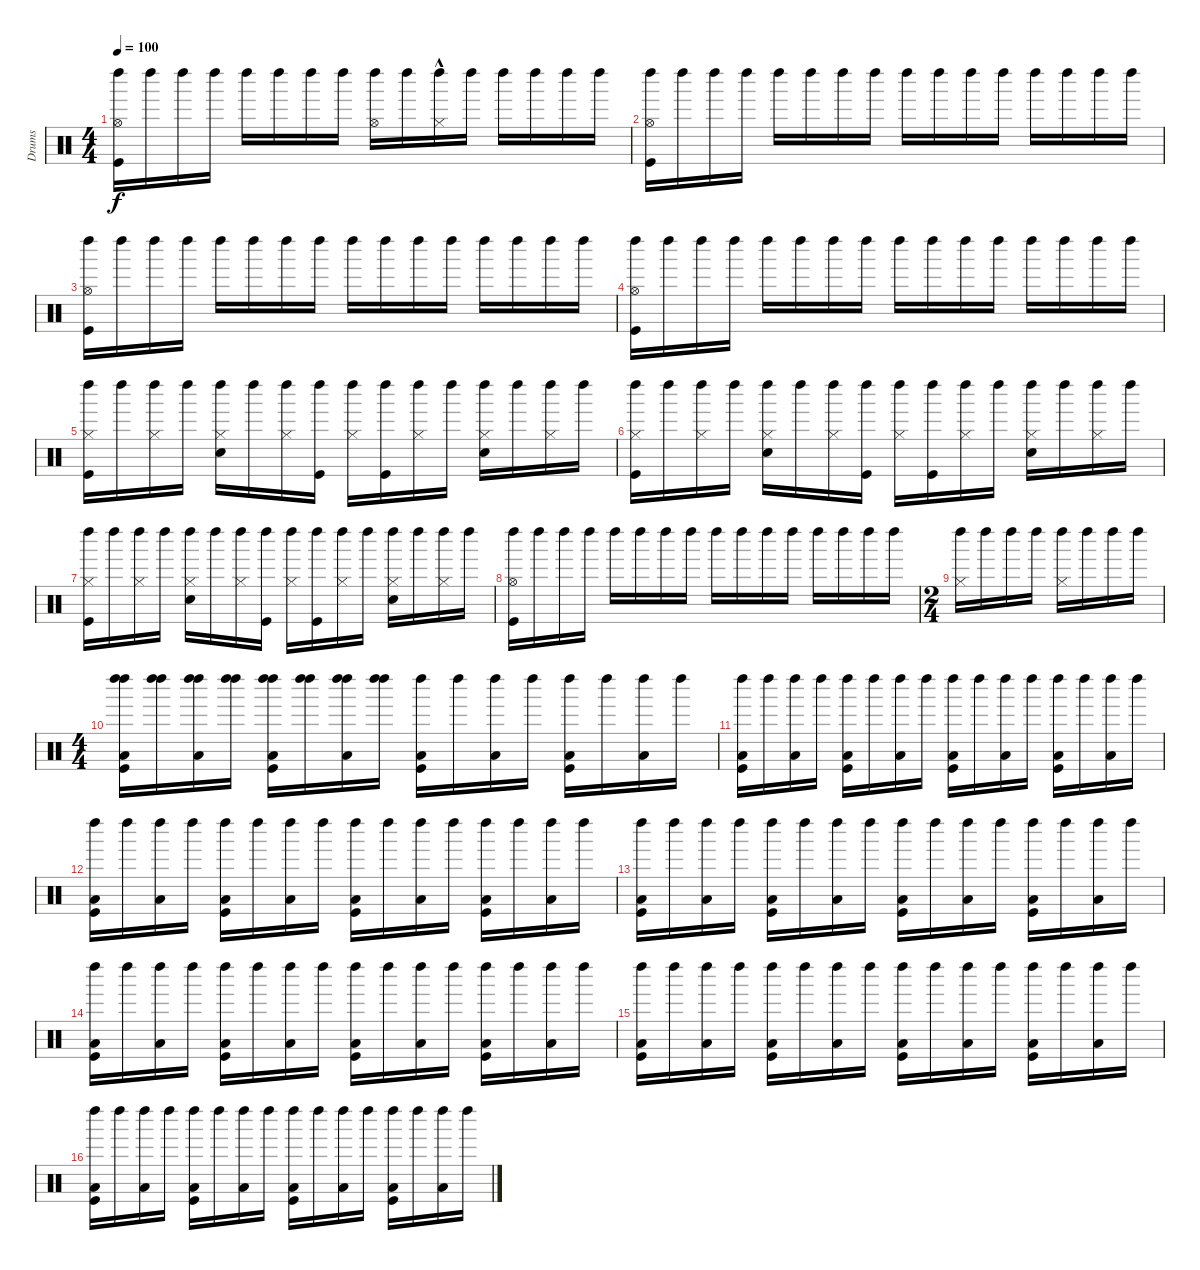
\track ("Drums" "Drums") {instrument percussion}
\staff {score}
\articulation defaults
\ts (4 4)
\tempo 100
\clef neutral
\ks c
("Kick (hit)" "Left Maraca (hit)" "Hi-Hat (open)").16{dy f} "Left Maraca (hit)".16 "Left Maraca (hit)".16 "Left Maraca (hit)".16 "Left Maraca (hit)".16 "Left Maraca (hit)".16 "Left Maraca (hit)".16 "Left Maraca (hit)".16 ("Left Maraca (hit)" "Hi-Hat (open)").16 "Left Maraca (hit)".16 ("Left Maraca (hit)" "Hi-Hat (closed)"{hac}).16 "Left Maraca (hit)".16 "Left Maraca (hit)".16 "Left Maraca (hit)".16 "Left Maraca (hit)".16 "Left Maraca (hit)".16 |
("Kick (hit)" "Hi-Hat (open)" "Left Maraca (hit)").16 "Left Maraca (hit)".16 "Left Maraca (hit)".16 "Left Maraca (hit)".16 "Left Maraca (hit)".16 "Left Maraca (hit)".16 "Left Maraca (hit)".16 "Left Maraca (hit)".16 "Left Maraca (hit)".16 "Left Maraca (hit)".16 "Left Maraca (hit)".16 "Left Maraca (hit)".16 "Left Maraca (hit)".16 "Left Maraca (hit)".16 "Left Maraca (hit)".16 "Left Maraca (hit)".16 |
("Kick (hit)" "Hi-Hat (open)" "Left Maraca (hit)").16 "Left Maraca (hit)".16 "Left Maraca (hit)".16 "Left Maraca (hit)".16 "Left Maraca (hit)".16 "Left Maraca (hit)".16 "Left Maraca (hit)".16 "Left Maraca (hit)".16 "Left Maraca (hit)".16 "Left Maraca (hit)".16 "Left Maraca (hit)".16 "Left Maraca (hit)".16 "Left Maraca (hit)".16 "Left Maraca (hit)".16 "Left Maraca (hit)".16 "Left Maraca (hit)".16 |
("Kick (hit)" "Hi-Hat (open)" "Left Maraca (hit)").16 "Left Maraca (hit)".16 "Left Maraca (hit)".16 "Left Maraca (hit)".16 "Left Maraca (hit)".16 "Left Maraca (hit)".16 "Left Maraca (hit)".16 "Left Maraca (hit)".16 "Left Maraca (hit)".16 "Left Maraca (hit)".16 "Left Maraca (hit)".16 "Left Maraca (hit)".16 "Left Maraca (hit)".16 "Left Maraca (hit)".16 "Left Maraca (hit)".16 "Left Maraca (hit)".16 |
("Hi-Hat (closed)" "Kick (hit)" "Left Maraca (hit)").16 "Left Maraca (hit)".16 ("Hi-Hat (closed)" "Left Maraca (hit)").16 "Left Maraca (hit)".16 ("Hi-Hat (closed)" "Electric Snare (hit)" "Left Maraca (hit)").16 "Left Maraca (hit)".16 ("Hi-Hat (closed)" "Left Maraca (hit)").16 ("Kick (hit)" "Left Maraca (hit)").16 ("Hi-Hat (closed)" "Left Maraca (hit)").16 ("Kick (hit)" "Left Maraca (hit)").16 ("Hi-Hat (closed)" "Left Maraca (hit)").16 "Left Maraca (hit)".16 ("Hi-Hat (closed)" "Electric Snare (hit)" "Left Maraca (hit)").16 "Left Maraca (hit)".16 ("Hi-Hat (closed)" "Left Maraca (hit)").16 "Left Maraca (hit)".16 |
("Hi-Hat (closed)" "Kick (hit)" "Left Maraca (hit)").16 "Left Maraca (hit)".16 ("Hi-Hat (closed)" "Left Maraca (hit)").16 "Left Maraca (hit)".16 ("Hi-Hat (closed)" "Electric Snare (hit)" "Left Maraca (hit)").16 "Left Maraca (hit)".16 ("Hi-Hat (closed)" "Left Maraca (hit)").16 ("Kick (hit)" "Left Maraca (hit)").16 ("Hi-Hat (closed)" "Left Maraca (hit)").16 ("Kick (hit)" "Left Maraca (hit)").16 ("Hi-Hat (closed)" "Left Maraca (hit)").16 "Left Maraca (hit)".16 ("Hi-Hat (closed)" "Electric Snare (hit)" "Left Maraca (hit)").16 "Left Maraca (hit)".16 ("Hi-Hat (closed)" "Left Maraca (hit)").16 "Left Maraca (hit)".16 |
("Hi-Hat (closed)" "Kick (hit)" "Left Maraca (hit)").16 "Left Maraca (hit)".16 ("Hi-Hat (closed)" "Left Maraca (hit)").16 "Left Maraca (hit)".16 ("Hi-Hat (closed)" "Electric Snare (hit)" "Left Maraca (hit)").16 "Left Maraca (hit)".16 ("Hi-Hat (closed)" "Left Maraca (hit)").16 ("Kick (hit)" "Left Maraca (hit)").16 ("Hi-Hat (closed)" "Left Maraca (hit)").16 ("Kick (hit)" "Left Maraca (hit)").16 ("Hi-Hat (closed)" "Left Maraca (hit)").16 "Left Maraca (hit)".16 ("Hi-Hat (closed)" "Electric Snare (hit)" "Left Maraca (hit)").16 "Left Maraca (hit)".16 ("Hi-Hat (closed)" "Left Maraca (hit)").16 "Left Maraca (hit)".16 |
("Kick (hit)" "Hi-Hat (open)" "Left Maraca (hit)").16 "Left Maraca (hit)".16 "Left Maraca (hit)".16 "Left Maraca (hit)".16 "Left Maraca (hit)".16 "Left Maraca (hit)".16 "Left Maraca (hit)".16 "Left Maraca (hit)".16 "Left Maraca (hit)".16 "Left Maraca (hit)".16 "Left Maraca (hit)".16 "Left Maraca (hit)".16 "Left Maraca (hit)".16 "Left Maraca (hit)".16 "Left Maraca (hit)".16 "Left Maraca (hit)".16 |
\ts (2 4)
("Hi-Hat (closed)" "Left Maraca (hit)").16 "Left Maraca (hit)".16 "Left Maraca (hit)".16 "Left Maraca (hit)".16 ("Hi-Hat (closed)" "Left Maraca (hit)").16 "Left Maraca (hit)".16 "Left Maraca (hit)".16 "Left Maraca (hit)".16 |
\ts (4 4)
("Kick (hit)" "Low Floor Tom (hit)" "Left Maraca (hit)" "Left Maraca (hit)").16 ("Left Maraca (hit)" "Left Maraca (hit)").16 ("Low Floor Tom (hit)" "Left Maraca (hit)" "Left Maraca (hit)").16 ("Left Maraca (hit)" "Left Maraca (hit)").16 ("Kick (hit)" "Low Floor Tom (hit)" "Left Maraca (hit)" "Left Maraca (hit)").16 ("Left Maraca (hit)" "Left Maraca (hit)").16 ("Low Floor Tom (hit)" "Left Maraca (hit)" "Left Maraca (hit)").16 ("Left Maraca (hit)" "Left Maraca (hit)").16 ("Kick (hit)" "Low Floor Tom (hit)" "Left Maraca (hit)").16 "Left Maraca (hit)".16 ("Low Floor Tom (hit)" "Left Maraca (hit)").16 "Left Maraca (hit)".16 ("Kick (hit)" "Low Floor Tom (hit)" "Left Maraca (hit)").16 "Left Maraca (hit)".16 ("Low Floor Tom (hit)" "Left Maraca (hit)").16 "Left Maraca (hit)".16 |
("Kick (hit)" "Low Floor Tom (hit)" "Left Maraca (hit)").16 "Left Maraca (hit)".16 ("Low Floor Tom (hit)" "Left Maraca (hit)").16 "Left Maraca (hit)".16 ("Kick (hit)" "Low Floor Tom (hit)" "Left Maraca (hit)").16 "Left Maraca (hit)".16 ("Low Floor Tom (hit)" "Left Maraca (hit)").16 "Left Maraca (hit)".16 ("Kick (hit)" "Low Floor Tom (hit)" "Left Maraca (hit)").16 "Left Maraca (hit)".16 ("Low Floor Tom (hit)" "Left Maraca (hit)").16 "Left Maraca (hit)".16 ("Kick (hit)" "Low Floor Tom (hit)" "Left Maraca (hit)").16 "Left Maraca (hit)".16 ("Low Floor Tom (hit)" "Left Maraca (hit)").16 "Left Maraca (hit)".16 |
("Kick (hit)" "Low Floor Tom (hit)" "Left Maraca (hit)").16 "Left Maraca (hit)".16 ("Low Floor Tom (hit)" "Left Maraca (hit)").16 "Left Maraca (hit)".16 ("Kick (hit)" "Low Floor Tom (hit)" "Left Maraca (hit)").16 "Left Maraca (hit)".16 ("Low Floor Tom (hit)" "Left Maraca (hit)").16 "Left Maraca (hit)".16 ("Kick (hit)" "Low Floor Tom (hit)" "Left Maraca (hit)").16 "Left Maraca (hit)".16 ("Low Floor Tom (hit)" "Left Maraca (hit)").16 "Left Maraca (hit)".16 ("Kick (hit)" "Low Floor Tom (hit)" "Left Maraca (hit)").16 "Left Maraca (hit)".16 ("Low Floor Tom (hit)" "Left Maraca (hit)").16 "Left Maraca (hit)".16 |
("Kick (hit)" "Low Floor Tom (hit)" "Left Maraca (hit)").16 "Left Maraca (hit)".16 ("Low Floor Tom (hit)" "Left Maraca (hit)").16 "Left Maraca (hit)".16 ("Kick (hit)" "Low Floor Tom (hit)" "Left Maraca (hit)").16 "Left Maraca (hit)".16 ("Low Floor Tom (hit)" "Left Maraca (hit)").16 "Left Maraca (hit)".16 ("Kick (hit)" "Low Floor Tom (hit)" "Left Maraca (hit)").16 "Left Maraca (hit)".16 ("Low Floor Tom (hit)" "Left Maraca (hit)").16 "Left Maraca (hit)".16 ("Kick (hit)" "Low Floor Tom (hit)" "Left Maraca (hit)").16 "Left Maraca (hit)".16 ("Low Floor Tom (hit)" "Left Maraca (hit)").16 "Left Maraca (hit)".16 |
("Kick (hit)" "Low Floor Tom (hit)" "Left Maraca (hit)").16 "Left Maraca (hit)".16 ("Low Floor Tom (hit)" "Left Maraca (hit)").16 "Left Maraca (hit)".16 ("Kick (hit)" "Low Floor Tom (hit)" "Left Maraca (hit)").16 "Left Maraca (hit)".16 ("Low Floor Tom (hit)" "Left Maraca (hit)").16 "Left Maraca (hit)".16 ("Kick (hit)" "Low Floor Tom (hit)" "Left Maraca (hit)").16 "Left Maraca (hit)".16 ("Low Floor Tom (hit)" "Left Maraca (hit)").16 "Left Maraca (hit)".16 ("Kick (hit)" "Low Floor Tom (hit)" "Left Maraca (hit)").16 "Left Maraca (hit)".16 ("Low Floor Tom (hit)" "Left Maraca (hit)").16 "Left Maraca (hit)".16 |
("Kick (hit)" "Low Floor Tom (hit)" "Left Maraca (hit)").16 "Left Maraca (hit)".16 ("Low Floor Tom (hit)" "Left Maraca (hit)").16 "Left Maraca (hit)".16 ("Kick (hit)" "Low Floor Tom (hit)" "Left Maraca (hit)").16 "Left Maraca (hit)".16 ("Low Floor Tom (hit)" "Left Maraca (hit)").16 "Left Maraca (hit)".16 ("Kick (hit)" "Low Floor Tom (hit)" "Left Maraca (hit)").16 "Left Maraca (hit)".16 ("Low Floor Tom (hit)" "Left Maraca (hit)").16 "Left Maraca (hit)".16 ("Kick (hit)" "Low Floor Tom (hit)" "Left Maraca (hit)").16 "Left Maraca (hit)".16 ("Low Floor Tom (hit)" "Left Maraca (hit)").16 "Left Maraca (hit)".16 |
("Kick (hit)" "Low Floor Tom (hit)" "Left Maraca (hit)").16 "Left Maraca (hit)".16 ("Low Floor Tom (hit)" "Left Maraca (hit)").16 "Left Maraca (hit)".16 ("Kick (hit)" "Low Floor Tom (hit)" "Left Maraca (hit)").16 "Left Maraca (hit)".16 ("Low Floor Tom (hit)" "Left Maraca (hit)").16 "Left Maraca (hit)".16 ("Kick (hit)" "Low Floor Tom (hit)" "Left Maraca (hit)").16 "Left Maraca (hit)".16 ("Low Floor Tom (hit)" "Left Maraca (hit)").16 "Left Maraca (hit)".16 ("Kick (hit)" "Low Floor Tom (hit)" "Left Maraca (hit)").16 "Left Maraca (hit)".16 ("Low Floor Tom (hit)" "Left Maraca (hit)").16 "Left Maraca (hit)".16
